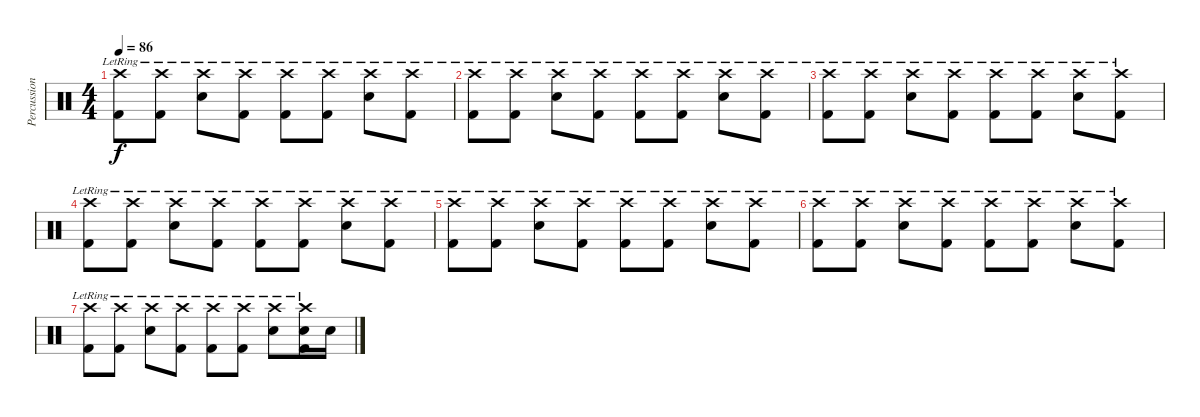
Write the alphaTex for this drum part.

\track ("Percussion" "Percussion") {instrument percussion}
\staff {score}
\articulation defaults
\ts (4 4)
\tempo 86
\clef neutral
\ks c
("Crash high (hit)"{lr} "Kick (hit) 2"{lr}).8{dy f} ("Crash high (hit)"{lr} "Kick (hit) 2"{lr}).8 ("Crash high (hit)"{lr} "Electric Snare (hit)"{lr}).8 ("Crash high (hit)"{lr} "Kick (hit) 2"{lr}).8 ("Crash high (hit)"{lr} "Kick (hit) 2"{lr}).8 ("Crash high (hit)"{lr} "Kick (hit) 2"{lr}).8 ("Crash high (hit)"{lr} "Electric Snare (hit)"{lr}).8 ("Crash high (hit)"{lr} "Kick (hit) 2"{lr}).8 |
("Crash high (hit)"{lr} "Kick (hit) 2"{lr}).8 ("Crash high (hit)"{lr} "Kick (hit) 2"{lr}).8 ("Crash high (hit)"{lr} "Electric Snare (hit)"{lr}).8 ("Crash high (hit)"{lr} "Kick (hit) 2"{lr}).8 ("Crash high (hit)"{lr} "Kick (hit) 2"{lr}).8 ("Crash high (hit)"{lr} "Kick (hit) 2"{lr}).8 ("Crash high (hit)"{lr} "Electric Snare (hit)"{lr}).8 ("Crash high (hit)"{lr} "Kick (hit) 2"{lr}).8 |
("Crash high (hit)"{lr} "Kick (hit) 2"{lr}).8 ("Crash high (hit)"{lr} "Kick (hit) 2"{lr}).8 ("Crash high (hit)"{lr} "Electric Snare (hit)"{lr}).8 ("Crash high (hit)"{lr} "Kick (hit) 2"{lr}).8 ("Crash high (hit)"{lr} "Kick (hit) 2"{lr}).8 ("Crash high (hit)"{lr} "Kick (hit) 2"{lr}).8 ("Crash high (hit)"{lr} "Electric Snare (hit)"{lr}).8 ("Crash high (hit)"{lr} "Kick (hit) 2"{lr}).8 |
("Crash high (hit)"{lr} "Kick (hit) 2"{lr}).8 ("Crash high (hit)"{lr} "Kick (hit) 2"{lr}).8 ("Crash high (hit)"{lr} "Electric Snare (hit)"{lr}).8 ("Crash high (hit)"{lr} "Kick (hit) 2"{lr}).8 ("Crash high (hit)"{lr} "Kick (hit) 2"{lr}).8 ("Crash high (hit)"{lr} "Kick (hit) 2"{lr}).8 ("Crash high (hit)"{lr} "Electric Snare (hit)"{lr}).8 ("Crash high (hit)"{lr} "Kick (hit) 2"{lr}).8 |
("Crash high (hit)"{lr} "Kick (hit) 2"{lr}).8 ("Crash high (hit)"{lr} "Kick (hit) 2"{lr}).8 ("Crash high (hit)"{lr} "Electric Snare (hit)"{lr}).8 ("Crash high (hit)"{lr} "Kick (hit) 2"{lr}).8 ("Crash high (hit)"{lr} "Kick (hit) 2"{lr}).8 ("Crash high (hit)"{lr} "Kick (hit) 2"{lr}).8 ("Crash high (hit)"{lr} "Electric Snare (hit)"{lr}).8 ("Crash high (hit)"{lr} "Kick (hit) 2"{lr}).8 |
("Crash high (hit)"{lr} "Kick (hit) 2"{lr}).8 ("Crash high (hit)"{lr} "Kick (hit) 2"{lr}).8 ("Crash high (hit)"{lr} "Electric Snare (hit)"{lr}).8 ("Crash high (hit)"{lr} "Kick (hit) 2"{lr}).8 ("Crash high (hit)"{lr} "Kick (hit) 2"{lr}).8 ("Crash high (hit)"{lr} "Kick (hit) 2"{lr}).8 ("Crash high (hit)"{lr} "Electric Snare (hit)"{lr}).8 ("Crash high (hit)"{lr} "Kick (hit) 2"{lr}).8 |
("Crash high (hit)"{lr} "Kick (hit) 2"{lr}).8 ("Crash high (hit)"{lr} "Kick (hit) 2"{lr}).8 ("Crash high (hit)"{lr} "Electric Snare (hit)"{lr}).8 ("Crash high (hit)"{lr} "Kick (hit) 2"{lr}).8 ("Crash high (hit)"{lr} "Kick (hit) 2"{lr}).8 ("Crash high (hit)" "Kick (hit) 2"{lr}).8 ("Crash high (hit)"{lr} "Electric Snare (hit)"{lr}).8 ("Crash high (hit)"{lr} "Electric Snare (hit)" "Kick (hit) 2"{lr}).16 "Electric Snare (hit)".16
